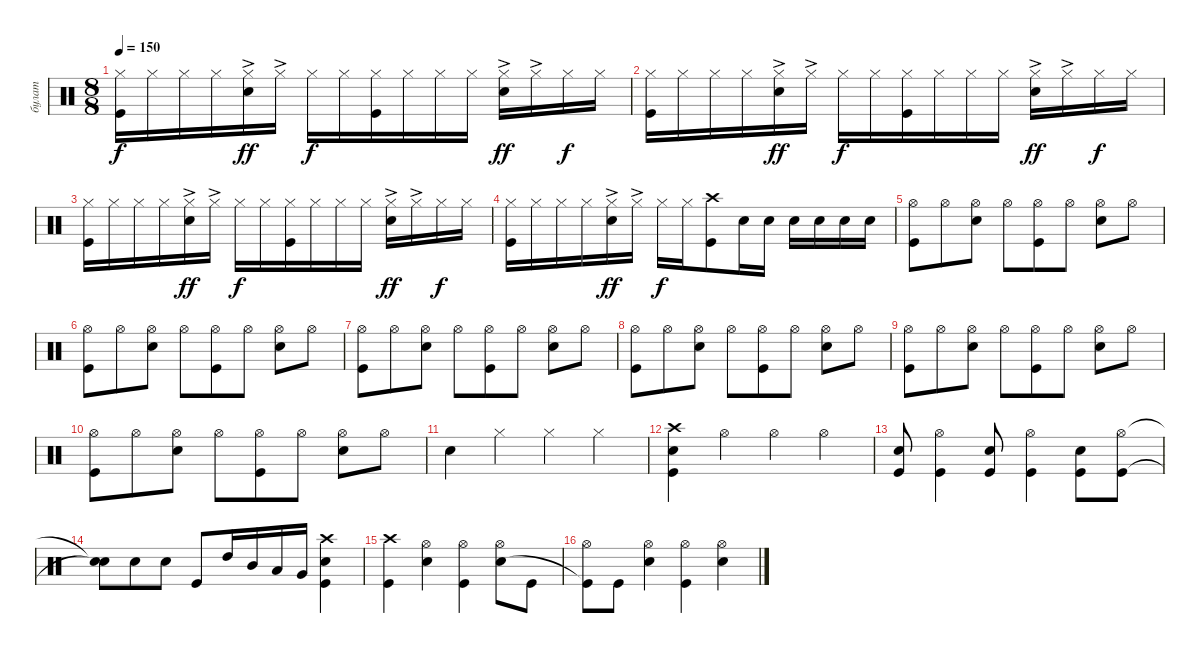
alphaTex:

\track ("булат" "булат") {instrument percussion}
\staff {score}
\articulation defaults
\ts (8 8)
\tempo 150
\clef neutral
\ks c
("Hi-Hat (closed)" "Kick (hit)").16{dy f} "Hi-Hat (closed)".16 "Hi-Hat (closed)".16 "Hi-Hat (closed)".16 ("Hi-Hat (closed)"{ac} "Snare (hit) 2").16{dy ff} "Hi-Hat (closed)"{ac}.16 "Hi-Hat (closed)".16{dy f} "Hi-Hat (closed)".16 ("Hi-Hat (closed)" "Kick (hit)").16 "Hi-Hat (closed)".16 "Hi-Hat (closed)".16 "Hi-Hat (closed)".16 ("Hi-Hat (closed)"{ac} "Snare (hit) 2").16{dy ff} "Hi-Hat (closed)"{ac}.16 "Hi-Hat (closed)".16{dy f} "Hi-Hat (closed)".16 |
("Hi-Hat (closed)" "Kick (hit)").16 "Hi-Hat (closed)".16 "Hi-Hat (closed)".16 "Hi-Hat (closed)".16 ("Hi-Hat (closed)"{ac} "Snare (hit) 2").16{dy ff} "Hi-Hat (closed)"{ac}.16 "Hi-Hat (closed)".16{dy f} "Hi-Hat (closed)".16 ("Hi-Hat (closed)" "Kick (hit)").16 "Hi-Hat (closed)".16 "Hi-Hat (closed)".16 "Hi-Hat (closed)".16 ("Hi-Hat (closed)"{ac} "Snare (hit) 2").16{dy ff} "Hi-Hat (closed)"{ac}.16 "Hi-Hat (closed)".16{dy f} "Hi-Hat (closed)".16 |
("Hi-Hat (closed)" "Kick (hit)").16 "Hi-Hat (closed)".16 "Hi-Hat (closed)".16 "Hi-Hat (closed)".16 ("Hi-Hat (closed)"{ac} "Snare (hit) 2").16{dy ff} "Hi-Hat (closed)"{ac}.16 "Hi-Hat (closed)".16{dy f} "Hi-Hat (closed)".16 ("Hi-Hat (closed)" "Kick (hit)").16 "Hi-Hat (closed)".16 "Hi-Hat (closed)".16 "Hi-Hat (closed)".16 ("Hi-Hat (closed)"{ac} "Snare (hit) 2").16{dy ff} "Hi-Hat (closed)"{ac}.16 "Hi-Hat (closed)".16{dy f} "Hi-Hat (closed)".16 |
("Hi-Hat (closed)" "Kick (hit)").16 "Hi-Hat (closed)".16 "Hi-Hat (closed)".16 "Hi-Hat (closed)".16 ("Hi-Hat (closed)"{ac} "Snare (hit) 2").16{dy ff} "Hi-Hat (closed)"{ac}.16 "Hi-Hat (closed)".16{dy f} "Hi-Hat (closed)".16 ("Crash high (hit)" "Kick (hit)").8 "Snare (hit) 2".16 "Snare (hit) 2".16 "Snare (hit) 2".16 "Snare (hit) 2".16 "Snare (hit) 2".16 "Snare (hit) 2".16 |
("Hi-Hat (open)" "Kick (hit)").8 "Hi-Hat (open)".8 ("Hi-Hat (open)" "Snare (hit) 2").8 "Hi-Hat (open)".8 ("Hi-Hat (open)" "Kick (hit)").8 "Hi-Hat (open)".8 ("Hi-Hat (open)" "Snare (hit) 2").8 "Hi-Hat (open)".8 |
("Hi-Hat (open)" "Kick (hit)").8 "Hi-Hat (open)".8 ("Hi-Hat (open)" "Snare (hit) 2").8 "Hi-Hat (open)".8 ("Hi-Hat (open)" "Kick (hit)").8 "Hi-Hat (open)".8 ("Hi-Hat (open)" "Snare (hit) 2").8 "Hi-Hat (open)".8 |
("Hi-Hat (open)" "Kick (hit)").8 "Hi-Hat (open)".8 ("Hi-Hat (open)" "Snare (hit) 2").8 "Hi-Hat (open)".8 ("Hi-Hat (open)" "Kick (hit)").8 "Hi-Hat (open)".8 ("Hi-Hat (open)" "Snare (hit) 2").8 "Hi-Hat (open)".8 |
("Hi-Hat (open)" "Kick (hit)").8 "Hi-Hat (open)".8 ("Hi-Hat (open)" "Snare (hit) 2").8 "Hi-Hat (open)".8 ("Hi-Hat (open)" "Kick (hit)").8 "Hi-Hat (open)".8 ("Hi-Hat (open)" "Snare (hit) 2").8 "Hi-Hat (open)".8 |
("Hi-Hat (open)" "Kick (hit)").8 "Hi-Hat (open)".8 ("Hi-Hat (open)" "Snare (hit) 2").8 "Hi-Hat (open)".8 ("Hi-Hat (open)" "Kick (hit)").8 "Hi-Hat (open)".8 ("Hi-Hat (open)" "Snare (hit) 2").8 "Hi-Hat (open)".8 |
("Hi-Hat (open)" "Kick (hit)").8 "Hi-Hat (open)".8 ("Hi-Hat (open)" "Snare (hit) 2").8 "Hi-Hat (open)".8 ("Hi-Hat (open)" "Kick (hit)").8 "Hi-Hat (open)".8 ("Hi-Hat (open)" "Snare (hit) 2").8 "Hi-Hat (open)".8 |
"Snare (hit) 2".4 "Hi-Hat (closed)".4 "Hi-Hat (closed)".4 "Hi-Hat (closed)".4 |
("Crash high (hit)" "Snare (hit) 2" "Kick (hit)").4 "Hi-Hat (open)".4 "Hi-Hat (open)".4 "Hi-Hat (open)".4 |
("Kick (hit)" "Snare (hit) 2").8 ("Hi-Hat (open)" "Kick (hit)").4 ("Kick (hit)" "Snare (hit) 2").8 ("Hi-Hat (open)" "Kick (hit)").4 ("Kick (hit)" "Snare (hit) 2").8 ("Hi-Hat (open)" "Kick (hit)").8 |
("Snare (hit)"{t} "Snare (hit)"{t}).8 "Snare (hit) 2".8 "Snare (hit) 2".8 "Kick (hit)".8 "High Tom (hit)".16 "Mid Tom (hit)".16 "Low Tom (hit)".16 "Very Low Tom (hit)".16 ("Crash high (hit)" "Kick (hit)" "Snare (hit) 2").4 |
("Crash high (hit)" "Kick (hit)").4 ("Hi-Hat (open)" "Snare (hit) 2").4 ("Hi-Hat (open)" "Kick (hit)").4 ("Hi-Hat (open)" "Snare (hit) 2").8 "Kick (hit)".8 |
("Hi-Hat (open)" "Kick (hit)"{t}).8 "Kick (hit)".8 ("Hi-Hat (open)" "Snare (hit) 2").4 ("Hi-Hat (open)" "Kick (hit)").4 ("Hi-Hat (open)" "Snare (hit) 2").4
